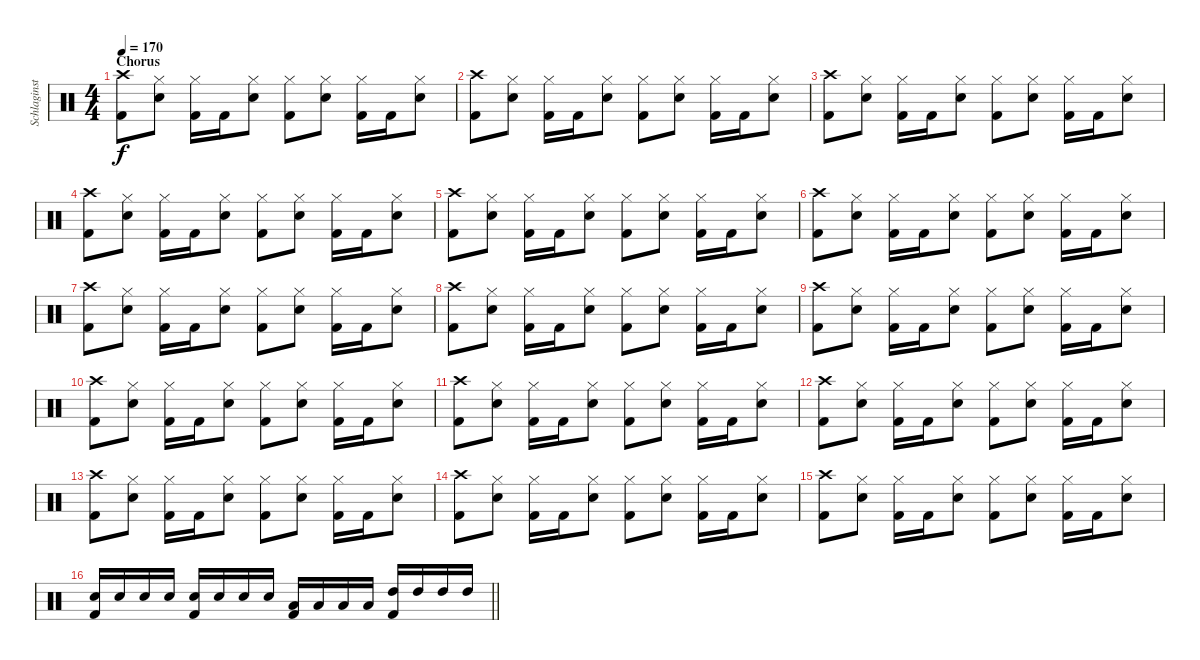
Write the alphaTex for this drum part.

\track ("Schlaginstrumente - Auswahl" "Schlaginst") {instrument percussion}
\staff {score}
\articulation defaults
\ts (4 4)
\section ("" "Chorus")
\tempo 170
\clef neutral
\ks c
("Crash high (hit)" "Kick (hit) 2").8{dy f} ("Hi-Hat (closed)" "Snare (hit) 2").8 ("Hi-Hat (closed)" "Kick (hit) 2").16 "Kick (hit) 2".16 ("Hi-Hat (closed)" "Snare (hit) 2").8 ("Hi-Hat (closed)" "Kick (hit) 2").8 ("Hi-Hat (closed)" "Snare (hit) 2").8 ("Hi-Hat (closed)" "Kick (hit) 2").16 "Kick (hit) 2".16 ("Hi-Hat (closed)" "Snare (hit) 2").8 |
("Crash high (hit)" "Kick (hit) 2").8 ("Hi-Hat (closed)" "Snare (hit) 2").8 ("Hi-Hat (closed)" "Kick (hit) 2").16 "Kick (hit) 2".16 ("Hi-Hat (closed)" "Snare (hit) 2").8 ("Hi-Hat (closed)" "Kick (hit) 2").8 ("Hi-Hat (closed)" "Snare (hit) 2").8 ("Hi-Hat (closed)" "Kick (hit) 2").16 "Kick (hit) 2".16 ("Hi-Hat (closed)" "Snare (hit) 2").8 |
("Crash high (hit)" "Kick (hit) 2").8 ("Hi-Hat (closed)" "Snare (hit) 2").8 ("Hi-Hat (closed)" "Kick (hit) 2").16 "Kick (hit) 2".16 ("Hi-Hat (closed)" "Snare (hit) 2").8 ("Hi-Hat (closed)" "Kick (hit) 2").8 ("Hi-Hat (closed)" "Snare (hit) 2").8 ("Hi-Hat (closed)" "Kick (hit) 2").16 "Kick (hit) 2".16 ("Hi-Hat (closed)" "Snare (hit) 2").8 |
("Crash high (hit)" "Kick (hit) 2").8 ("Hi-Hat (closed)" "Snare (hit) 2").8 ("Hi-Hat (closed)" "Kick (hit) 2").16 "Kick (hit) 2".16 ("Hi-Hat (closed)" "Snare (hit) 2").8 ("Hi-Hat (closed)" "Kick (hit) 2").8 ("Hi-Hat (closed)" "Snare (hit) 2").8 ("Hi-Hat (closed)" "Kick (hit) 2").16 "Kick (hit) 2".16 ("Hi-Hat (closed)" "Snare (hit) 2").8 |
("Crash high (hit)" "Kick (hit) 2").8 ("Hi-Hat (closed)" "Snare (hit) 2").8 ("Hi-Hat (closed)" "Kick (hit) 2").16 "Kick (hit) 2".16 ("Hi-Hat (closed)" "Snare (hit) 2").8 ("Hi-Hat (closed)" "Kick (hit) 2").8 ("Hi-Hat (closed)" "Snare (hit) 2").8 ("Hi-Hat (closed)" "Kick (hit) 2").16 "Kick (hit) 2".16 ("Hi-Hat (closed)" "Snare (hit) 2").8 |
("Crash high (hit)" "Kick (hit) 2").8 ("Hi-Hat (closed)" "Snare (hit) 2").8 ("Hi-Hat (closed)" "Kick (hit) 2").16 "Kick (hit) 2".16 ("Hi-Hat (closed)" "Snare (hit) 2").8 ("Hi-Hat (closed)" "Kick (hit) 2").8 ("Hi-Hat (closed)" "Snare (hit) 2").8 ("Hi-Hat (closed)" "Kick (hit) 2").16 "Kick (hit) 2".16 ("Hi-Hat (closed)" "Snare (hit) 2").8 |
("Crash high (hit)" "Kick (hit) 2").8 ("Hi-Hat (closed)" "Snare (hit) 2").8 ("Hi-Hat (closed)" "Kick (hit) 2").16 "Kick (hit) 2".16 ("Hi-Hat (closed)" "Snare (hit) 2").8 ("Hi-Hat (closed)" "Kick (hit) 2").8 ("Hi-Hat (closed)" "Snare (hit) 2").8 ("Hi-Hat (closed)" "Kick (hit) 2").16 "Kick (hit) 2".16 ("Hi-Hat (closed)" "Snare (hit) 2").8 |
("Crash high (hit)" "Kick (hit) 2").8 ("Hi-Hat (closed)" "Snare (hit) 2").8 ("Hi-Hat (closed)" "Kick (hit) 2").16 "Kick (hit) 2".16 ("Hi-Hat (closed)" "Snare (hit) 2").8 ("Hi-Hat (closed)" "Kick (hit) 2").8 ("Hi-Hat (closed)" "Snare (hit) 2").8 ("Hi-Hat (closed)" "Kick (hit) 2").16 "Kick (hit) 2".16 ("Hi-Hat (closed)" "Snare (hit) 2").8 |
("Crash high (hit)" "Kick (hit) 2").8 ("Hi-Hat (closed)" "Snare (hit) 2").8 ("Hi-Hat (closed)" "Kick (hit) 2").16 "Kick (hit) 2".16 ("Hi-Hat (closed)" "Snare (hit) 2").8 ("Hi-Hat (closed)" "Kick (hit) 2").8 ("Hi-Hat (closed)" "Snare (hit) 2").8 ("Hi-Hat (closed)" "Kick (hit) 2").16 "Kick (hit) 2".16 ("Hi-Hat (closed)" "Snare (hit) 2").8 |
("Crash high (hit)" "Kick (hit) 2").8 ("Hi-Hat (closed)" "Snare (hit) 2").8 ("Hi-Hat (closed)" "Kick (hit) 2").16 "Kick (hit) 2".16 ("Hi-Hat (closed)" "Snare (hit) 2").8 ("Hi-Hat (closed)" "Kick (hit) 2").8 ("Hi-Hat (closed)" "Snare (hit) 2").8 ("Hi-Hat (closed)" "Kick (hit) 2").16 "Kick (hit) 2".16 ("Hi-Hat (closed)" "Snare (hit) 2").8 |
("Crash high (hit)" "Kick (hit) 2").8 ("Hi-Hat (closed)" "Snare (hit) 2").8 ("Hi-Hat (closed)" "Kick (hit) 2").16 "Kick (hit) 2".16 ("Hi-Hat (closed)" "Snare (hit) 2").8 ("Hi-Hat (closed)" "Kick (hit) 2").8 ("Hi-Hat (closed)" "Snare (hit) 2").8 ("Hi-Hat (closed)" "Kick (hit) 2").16 "Kick (hit) 2".16 ("Hi-Hat (closed)" "Snare (hit) 2").8 |
("Crash high (hit)" "Kick (hit) 2").8 ("Hi-Hat (closed)" "Snare (hit) 2").8 ("Hi-Hat (closed)" "Kick (hit) 2").16 "Kick (hit) 2".16 ("Hi-Hat (closed)" "Snare (hit) 2").8 ("Hi-Hat (closed)" "Kick (hit) 2").8 ("Hi-Hat (closed)" "Snare (hit) 2").8 ("Hi-Hat (closed)" "Kick (hit) 2").16 "Kick (hit) 2".16 ("Hi-Hat (closed)" "Snare (hit) 2").8 |
("Crash high (hit)" "Kick (hit) 2").8 ("Hi-Hat (closed)" "Snare (hit) 2").8 ("Hi-Hat (closed)" "Kick (hit) 2").16 "Kick (hit) 2".16 ("Hi-Hat (closed)" "Snare (hit) 2").8 ("Hi-Hat (closed)" "Kick (hit) 2").8 ("Hi-Hat (closed)" "Snare (hit) 2").8 ("Hi-Hat (closed)" "Kick (hit) 2").16 "Kick (hit) 2".16 ("Hi-Hat (closed)" "Snare (hit) 2").8 |
("Crash high (hit)" "Kick (hit) 2").8 ("Hi-Hat (closed)" "Snare (hit) 2").8 ("Hi-Hat (closed)" "Kick (hit) 2").16 "Kick (hit) 2".16 ("Hi-Hat (closed)" "Snare (hit) 2").8 ("Hi-Hat (closed)" "Kick (hit) 2").8 ("Hi-Hat (closed)" "Snare (hit) 2").8 ("Hi-Hat (closed)" "Kick (hit) 2").16 "Kick (hit) 2".16 ("Hi-Hat (closed)" "Snare (hit) 2").8 |
("Crash high (hit)" "Kick (hit) 2").8 ("Hi-Hat (closed)" "Snare (hit) 2").8 ("Hi-Hat (closed)" "Kick (hit) 2").16 "Kick (hit) 2".16 ("Hi-Hat (closed)" "Snare (hit) 2").8 ("Hi-Hat (closed)" "Kick (hit) 2").8 ("Hi-Hat (closed)" "Snare (hit) 2").8 ("Hi-Hat (closed)" "Kick (hit) 2").16 "Kick (hit) 2".16 ("Hi-Hat (closed)" "Snare (hit) 2").8 |
\barLineRight lightlight
("Snare (hit) 2" "Kick (hit) 2").16 "Snare (hit) 2".16 "Snare (hit) 2".16 "Snare (hit) 2".16 ("Snare (hit) 2" "Kick (hit) 2").16 "Snare (hit) 2".16 "Snare (hit) 2".16 "Snare (hit) 2".16 ("Low Tom (hit)" "Kick (hit) 2").16 "Low Tom (hit)".16 "Low Tom (hit)".16 "Low Tom (hit)".16 ("High Tom (hit)" "Kick (hit) 2").16 "High Tom (hit)".16 "High Tom (hit)".16 "High Tom (hit)".16
